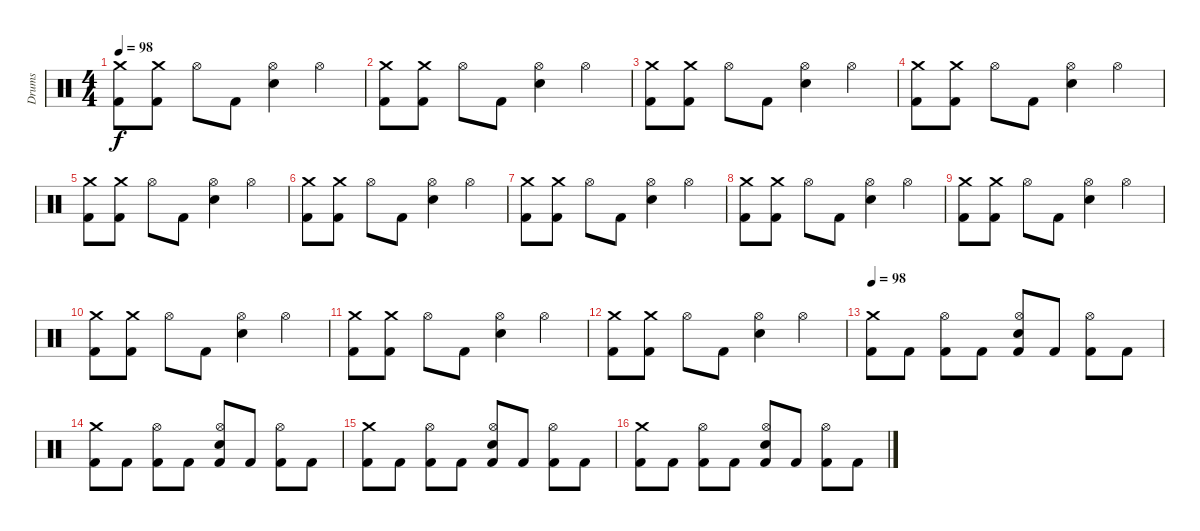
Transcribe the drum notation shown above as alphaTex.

\track ("Drums" "Drums") {instrument percussion}
\staff {score}
\articulation defaults
\ts (4 4)
\tempo 98
\clef neutral
\ks c
("Kick (hit) 2" "Crash medium (hit)").8{dy f} ("Kick (hit) 2" "Crash medium (hit)").8 "Hi-Hat (open)".8 "Kick (hit) 2".8 ("Electric Snare (hit)" "Hi-Hat (open)").4 "Hi-Hat (open)".4 |
("Kick (hit) 2" "Crash medium (hit)").8 ("Kick (hit) 2" "Crash medium (hit)").8 "Hi-Hat (open)".8 "Kick (hit) 2".8 ("Electric Snare (hit)" "Hi-Hat (open)").4 "Hi-Hat (open)".4 |
("Kick (hit) 2" "Crash medium (hit)").8 ("Kick (hit) 2" "Crash medium (hit)").8 "Hi-Hat (open)".8 "Kick (hit) 2".8 ("Electric Snare (hit)" "Hi-Hat (open)").4 "Hi-Hat (open)".4 |
("Kick (hit) 2" "Crash medium (hit)").8 ("Kick (hit) 2" "Crash medium (hit)").8 "Hi-Hat (open)".8 "Kick (hit) 2".8 ("Electric Snare (hit)" "Hi-Hat (open)").4 "Hi-Hat (open)".4 |
("Kick (hit) 2" "Crash medium (hit)").8 ("Kick (hit) 2" "Crash medium (hit)").8 "Hi-Hat (open)".8 "Kick (hit) 2".8 ("Electric Snare (hit)" "Hi-Hat (open)").4 "Hi-Hat (open)".4 |
("Kick (hit) 2" "Crash medium (hit)").8 ("Kick (hit) 2" "Crash medium (hit)").8 "Hi-Hat (open)".8 "Kick (hit) 2".8 ("Electric Snare (hit)" "Hi-Hat (open)").4 "Hi-Hat (open)".4 |
("Kick (hit) 2" "Crash medium (hit)").8 ("Kick (hit) 2" "Crash medium (hit)").8 "Hi-Hat (open)".8 "Kick (hit) 2".8 ("Electric Snare (hit)" "Hi-Hat (open)").4 "Hi-Hat (open)".4 |
("Kick (hit) 2" "Crash medium (hit)").8 ("Kick (hit) 2" "Crash medium (hit)").8 "Hi-Hat (open)".8 "Kick (hit) 2".8 ("Electric Snare (hit)" "Hi-Hat (open)").4 "Hi-Hat (open)".4 |
("Kick (hit) 2" "Crash medium (hit)").8 ("Kick (hit) 2" "Crash medium (hit)").8 "Hi-Hat (open)".8 "Kick (hit) 2".8 ("Electric Snare (hit)" "Hi-Hat (open)").4 "Hi-Hat (open)".4 |
("Kick (hit) 2" "Crash medium (hit)").8 ("Kick (hit) 2" "Crash medium (hit)").8 "Hi-Hat (open)".8 "Kick (hit) 2".8 ("Electric Snare (hit)" "Hi-Hat (open)").4 "Hi-Hat (open)".4 |
("Kick (hit) 2" "Crash medium (hit)").8 ("Kick (hit) 2" "Crash medium (hit)").8 "Hi-Hat (open)".8 "Kick (hit) 2".8 ("Electric Snare (hit)" "Hi-Hat (open)").4 "Hi-Hat (open)".4 |
("Kick (hit) 2" "Crash medium (hit)").8 ("Kick (hit) 2" "Crash medium (hit)").8 "Hi-Hat (open)".8 "Kick (hit) 2".8 ("Electric Snare (hit)" "Hi-Hat (open)").4 "Hi-Hat (open)".4 |
\tempo 98
("Kick (hit) 2" "Crash medium (hit)").8 "Kick (hit) 2".8 ("Kick (hit) 2" "Hi-Hat (open)").8 "Kick (hit) 2".8 ("Kick (hit) 2" "Electric Snare (hit)" "Hi-Hat (open)").8 "Kick (hit) 2".8 ("Kick (hit) 2" "Hi-Hat (open)").8 "Kick (hit) 2".8 |
("Kick (hit) 2" "Crash medium (hit)").8 "Kick (hit) 2".8 ("Kick (hit) 2" "Hi-Hat (open)").8 "Kick (hit) 2".8 ("Kick (hit) 2" "Electric Snare (hit)" "Hi-Hat (open)").8 "Kick (hit) 2".8 ("Kick (hit) 2" "Hi-Hat (open)").8 "Kick (hit) 2".8 |
("Kick (hit) 2" "Crash medium (hit)").8 "Kick (hit) 2".8 ("Kick (hit) 2" "Hi-Hat (open)").8 "Kick (hit) 2".8 ("Kick (hit) 2" "Electric Snare (hit)" "Hi-Hat (open)").8 "Kick (hit) 2".8 ("Kick (hit) 2" "Hi-Hat (open)").8 "Kick (hit) 2".8 |
("Kick (hit) 2" "Crash medium (hit)").8 "Kick (hit) 2".8 ("Kick (hit) 2" "Hi-Hat (open)").8 "Kick (hit) 2".8 ("Kick (hit) 2" "Electric Snare (hit)" "Hi-Hat (open)").8 "Kick (hit) 2".8 ("Kick (hit) 2" "Hi-Hat (open)").8 "Kick (hit) 2".8
